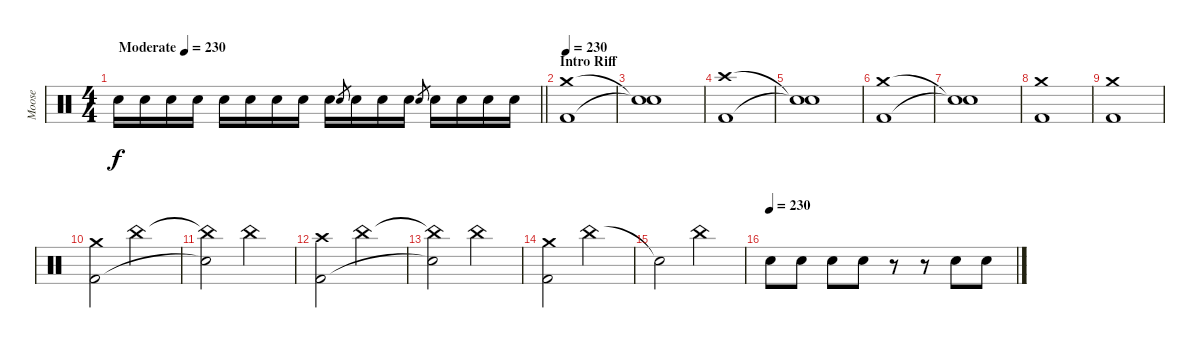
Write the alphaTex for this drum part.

\track ("Moose" "Moose") {instrument percussion}
\staff {score}
\articulation defaults
\ts (4 4)
\tempo (230 "Moderate")
\tempo 115
\tempo (230 "Moderate")
\clef neutral
\barLineRight lightlight
\ks c "Snare (hit) 2".16{dy f} "Snare (hit) 2".16 "Snare (hit) 2".16 "Snare (hit) 2".16 "Snare (hit) 2".16 "Snare (hit) 2".16 "Snare (hit) 2".16 "Snare (hit) 2".16 "Snare (hit) 2".16 "Snare (hit) 2".8{gr} "Snare (hit) 2".16 "Snare (hit) 2".16 "Snare (hit) 2".16 "Snare (hit) 2".8{gr} "Snare (hit) 2".16 "Snare (hit) 2".16 "Snare (hit) 2".16 "Snare (hit) 2".16
|
\section ("" "Intro Riff")
\tempo 230
("Crash medium (hit)" "Kick (hit) 2").1 |
("Snare (hit)"{t} "Snare (hit)"{t}).1 |
("Crash high (hit)" "Kick (hit) 2").1 |
("Snare (hit)"{t} "Snare (hit)"{t}).1 |
("Crash medium (hit)" "Kick (hit) 2").1 |
("Snare (hit)"{t} "Snare (hit)"{t}).1 |
("Crash medium (hit)" "Kick (hit) 2").1 |
("Crash medium (hit)" "Kick (hit) 2").1 |
("Crash medium (hit)" "Kick (hit) 2").2 "China (hit)".2 |
("China (hit)"{t} "Snare (hit)"{t}).2 "China (hit)".2 |
("Crash high (hit)" "Kick (hit) 2").2 "China (hit)".2 |
("China (hit)"{t} "Snare (hit)"{t}).2 "China (hit)".2 |
("Crash medium (hit)" "Kick (hit) 2").2 "China (hit)".2 |
"Snare (hit)"{t}.2 "China (hit)".2 |
\tempo (230)
"Snare (hit) 2".8 "Snare (hit) 2".8 "Snare (hit) 2".8 "Snare (hit) 2".8 r.8 r.8 "Snare (hit) 2".8 "Snare (hit) 2".8
